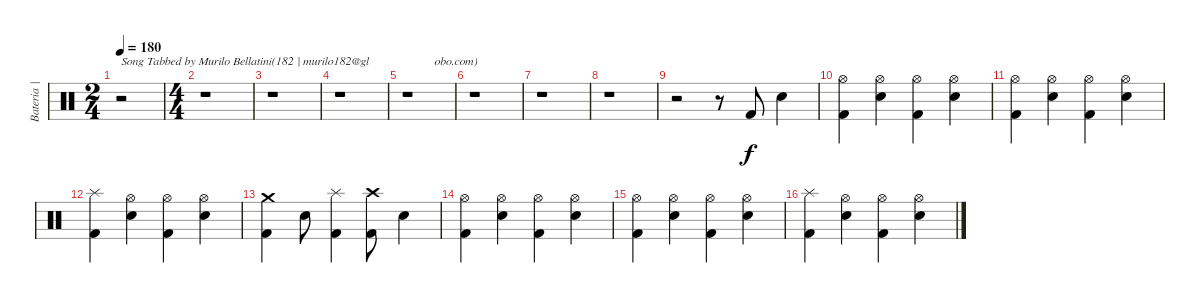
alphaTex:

\track ("Bateria | Fábio" "Bateria | ") {instrument percussion}
\staff {score}
\articulation defaults
\ts (2 4)
\tempo 180
\clef neutral
\ks c
r.2{txt "Song Tabbed by Murilo Bellatini(182 | murilo182@gl" dy f} |
\ts (4 4)
r.1 |
r.1 |
r.1 |
r.1{txt "         obo.com)"} |
r.1 |
r.1 |
r.1 |
r.2 r.8 "Kick (hit) 2".8 "Snare (hit) 2".4 |
("Hi-Hat (open)" "Kick (hit) 2").4 ("Hi-Hat (open)" "Snare (hit) 2").4 ("Hi-Hat (open)" "Kick (hit) 2").4 ("Hi-Hat (open)" "Snare (hit) 2").4 |
("Hi-Hat (open)" "Kick (hit) 2").4 ("Hi-Hat (open)" "Snare (hit) 2").4 ("Hi-Hat (open)" "Kick (hit) 2").4 ("Hi-Hat (open)" "Snare (hit) 2").4 |
("Splash (hit)" "Kick (hit) 2").4 ("Hi-Hat (open)" "Snare (hit) 2").4 ("Hi-Hat (open)" "Kick (hit) 2").4 ("Hi-Hat (open)" "Snare (hit) 2").4 |
("Crash medium (hit)" "Kick (hit) 2").4 "Snare (hit) 2".8 ("Splash (hit)" "Kick (hit) 2").4 ("Crash high (hit)" "Kick (hit) 2").8 "Snare (hit) 2".4 |
("Hi-Hat (open)" "Kick (hit) 2").4 ("Hi-Hat (open)" "Snare (hit) 2").4 ("Hi-Hat (open)" "Kick (hit) 2").4 ("Hi-Hat (open)" "Snare (hit) 2").4 |
("Hi-Hat (open)" "Kick (hit) 2").4 ("Hi-Hat (open)" "Snare (hit) 2").4 ("Hi-Hat (open)" "Kick (hit) 2").4 ("Hi-Hat (open)" "Snare (hit) 2").4 |
("Splash (hit)" "Kick (hit) 2").4 ("Hi-Hat (open)" "Snare (hit) 2").4 ("Hi-Hat (open)" "Kick (hit) 2").4 ("Hi-Hat (open)" "Snare (hit) 2").4
